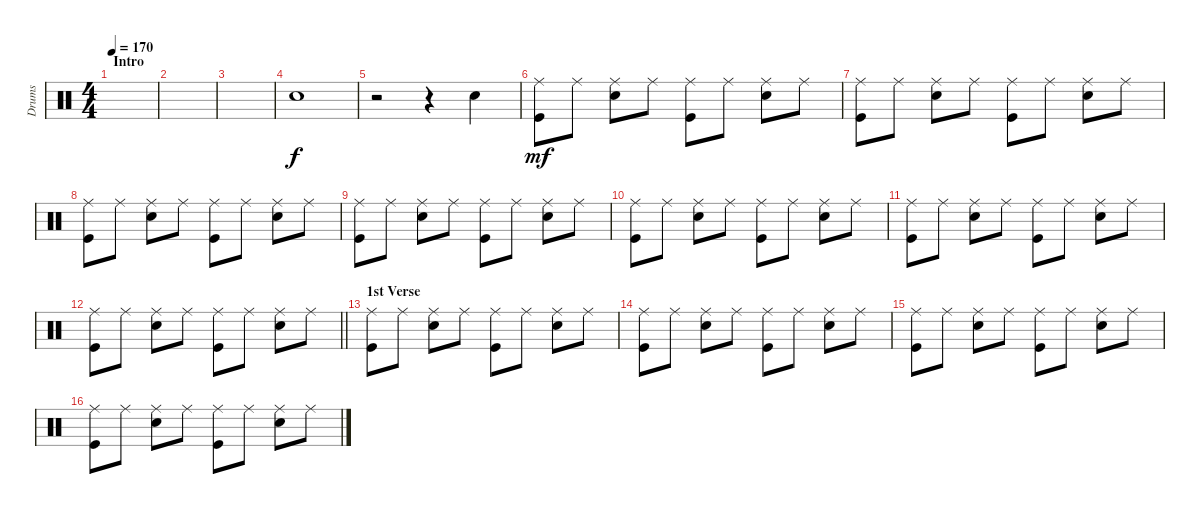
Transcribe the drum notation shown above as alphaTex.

\track ("Drums" "Drums") {instrument percussion}
\staff {score}
\articulation defaults
\ts (4 4)
\section ("" "Intro")
\tempo 170
\clef neutral
\ks c
|
|
|
"Snare (hit) 2".1 |
r.2 r.4 "Snare (hit) 2".4 |
("Ride (middle)" "Kick (hit)").8{dy mf} "Ride (middle)".8 ("Ride (middle)" "Snare (hit) 2").8 "Ride (middle)".8 ("Ride (middle)" "Kick (hit)").8 "Ride (middle)".8 ("Ride (middle)" "Snare (hit) 2").8 "Ride (middle)".8 |
("Ride (middle)" "Kick (hit)").8 "Ride (middle)".8 ("Ride (middle)" "Snare (hit) 2").8 "Ride (middle)".8 ("Ride (middle)" "Kick (hit)").8 "Ride (middle)".8 ("Ride (middle)" "Snare (hit) 2").8 "Ride (middle)".8 |
("Ride (middle)" "Kick (hit)").8 "Ride (middle)".8 ("Ride (middle)" "Snare (hit) 2").8 "Ride (middle)".8 ("Ride (middle)" "Kick (hit)").8 "Ride (middle)".8 ("Ride (middle)" "Snare (hit) 2").8 "Ride (middle)".8 |
("Ride (middle)" "Kick (hit)").8 "Ride (middle)".8 ("Ride (middle)" "Snare (hit) 2").8 "Ride (middle)".8 ("Ride (middle)" "Kick (hit)").8 "Ride (middle)".8 ("Ride (middle)" "Snare (hit) 2").8 "Ride (middle)".8 |
("Ride (middle)" "Kick (hit)").8 "Ride (middle)".8 ("Ride (middle)" "Snare (hit) 2").8 "Ride (middle)".8 ("Ride (middle)" "Kick (hit)").8 "Ride (middle)".8 ("Ride (middle)" "Snare (hit) 2").8 "Ride (middle)".8 |
("Ride (middle)" "Kick (hit)").8 "Ride (middle)".8 ("Ride (middle)" "Snare (hit) 2").8 "Ride (middle)".8 ("Ride (middle)" "Kick (hit)").8 "Ride (middle)".8 ("Ride (middle)" "Snare (hit) 2").8 "Ride (middle)".8 |
\barLineRight lightlight
("Ride (middle)" "Kick (hit)").8 "Ride (middle)".8 ("Ride (middle)" "Snare (hit) 2").8 "Ride (middle)".8 ("Ride (middle)" "Kick (hit)").8 "Ride (middle)".8 ("Ride (middle)" "Snare (hit) 2").8 "Ride (middle)".8 |
\section ("" "1st Verse")
("Ride (middle)" "Kick (hit)").8 "Ride (middle)".8 ("Ride (middle)" "Snare (hit) 2").8 "Ride (middle)".8 ("Ride (middle)" "Kick (hit)").8 "Ride (middle)".8 ("Ride (middle)" "Snare (hit) 2").8 "Ride (middle)".8 |
("Ride (middle)" "Kick (hit)").8 "Ride (middle)".8 ("Ride (middle)" "Snare (hit) 2").8 "Ride (middle)".8 ("Ride (middle)" "Kick (hit)").8 "Ride (middle)".8 ("Ride (middle)" "Snare (hit) 2").8 "Ride (middle)".8 |
("Ride (middle)" "Kick (hit)").8 "Ride (middle)".8 ("Ride (middle)" "Snare (hit) 2").8 "Ride (middle)".8 ("Ride (middle)" "Kick (hit)").8 "Ride (middle)".8 ("Ride (middle)" "Snare (hit) 2").8 "Ride (middle)".8 |
("Ride (middle)" "Kick (hit)").8 "Ride (middle)".8 ("Ride (middle)" "Snare (hit) 2").8 "Ride (middle)".8 ("Ride (middle)" "Kick (hit)").8 "Ride (middle)".8 ("Ride (middle)" "Snare (hit) 2").8 "Ride (middle)".8
